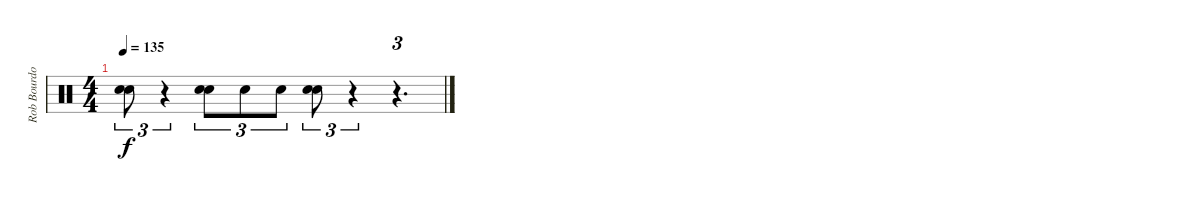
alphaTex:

\track ("Rob Bourdon [Drums]" "Rob Bourdo") {instrument percussion bank 5}
\staff {score}
\articulation defaults
\ts (4 4)
\tempo 135
\clef neutral
\ks c
("Hand Clap (hit)" "Electric Snare (hit)").8{tu (3 2) dy f} r.4{tu (3 2)} ("Hand Clap (hit)" "Electric Snare (hit)").8{tu (3 2)} "Electric Snare (hit)".8{tu (3 2)} "Electric Snare (hit)".8{tu (3 2)} ("Hand Clap (hit)" "Electric Snare (hit)").8{tu (3 2)} r.4{tu (3 2)} r.4{d tu (3 2)}
